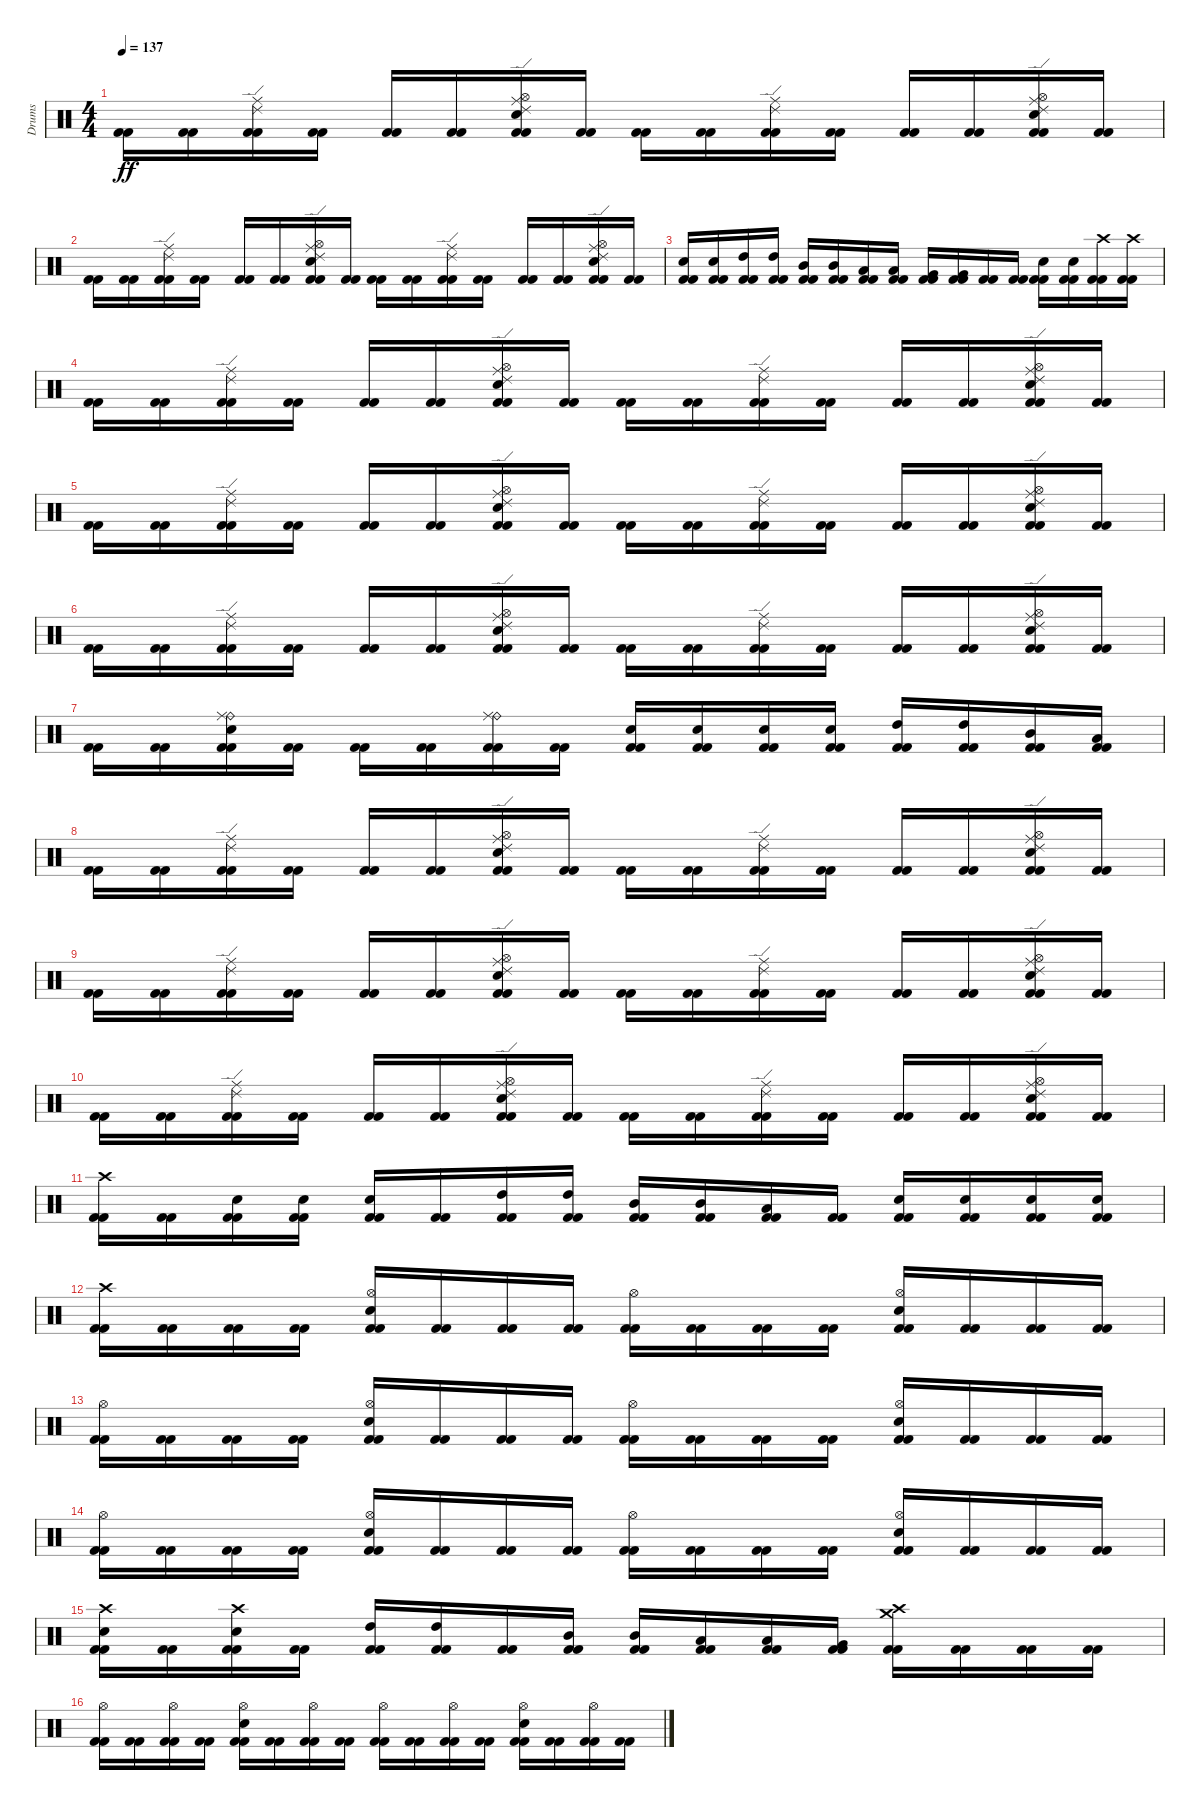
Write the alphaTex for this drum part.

\track ("Drums" "Drums") {instrument percussion}
\staff {score}
\articulation defaults
\ts (4 4)
\tempo 137
\clef neutral
\ks c
("Kick (hit) 2" "Kick (hit) 2").16{dy ff} ("Kick (hit) 2" "Kick (hit) 2").16 ("Ride (edge) 2" "Ride (middle)" "Kick (hit) 2" "Kick (hit) 2").16 ("Kick (hit) 2" "Kick (hit) 2").16 ("Kick (hit) 2" "Kick (hit) 2").16 ("Kick (hit) 2" "Kick (hit) 2").16 ("Ride (edge) 2" "Hi-Hat (open)" "Ride (middle)" "Electric Snare (hit)" "Kick (hit) 2" "Kick (hit) 2").16 ("Kick (hit) 2" "Kick (hit) 2").16 ("Kick (hit) 2" "Kick (hit) 2").16 ("Kick (hit) 2" "Kick (hit) 2").16 ("Ride (edge) 2" "Ride (middle)" "Kick (hit) 2" "Kick (hit) 2").16 ("Kick (hit) 2" "Kick (hit) 2").16 ("Kick (hit) 2" "Kick (hit) 2").16 ("Kick (hit) 2" "Kick (hit) 2").16 ("Ride (edge) 2" "Hi-Hat (open)" "Ride (middle)" "Electric Snare (hit)" "Kick (hit) 2" "Kick (hit) 2").16 ("Kick (hit) 2" "Kick (hit) 2").16 |
("Kick (hit) 2" "Kick (hit) 2").16 ("Kick (hit) 2" "Kick (hit) 2").16 ("Ride (edge) 2" "Ride (middle)" "Kick (hit) 2" "Kick (hit) 2").16 ("Kick (hit) 2" "Kick (hit) 2").16 ("Kick (hit) 2" "Kick (hit) 2").16 ("Kick (hit) 2" "Kick (hit) 2").16 ("Ride (edge) 2" "Hi-Hat (open)" "Ride (middle)" "Electric Snare (hit)" "Kick (hit) 2" "Kick (hit) 2").16 ("Kick (hit) 2" "Kick (hit) 2").16 ("Kick (hit) 2" "Kick (hit) 2").16 ("Kick (hit) 2" "Kick (hit) 2").16 ("Ride (edge) 2" "Ride (middle)" "Kick (hit) 2" "Kick (hit) 2").16 ("Kick (hit) 2" "Kick (hit) 2").16 ("Kick (hit) 2" "Kick (hit) 2").16 ("Kick (hit) 2" "Kick (hit) 2").16 ("Ride (edge) 2" "Hi-Hat (open)" "Ride (middle)" "Electric Snare (hit)" "Kick (hit) 2" "Kick (hit) 2").16 ("Kick (hit) 2" "Kick (hit) 2").16 |
("Electric Snare (hit)" "Kick (hit) 2" "Kick (hit) 2").16 ("Electric Snare (hit)" "Kick (hit) 2" "Kick (hit) 2").16 ("High Tom (hit)" "Kick (hit) 2" "Kick (hit) 2").16 ("High Tom (hit)" "Kick (hit) 2" "Kick (hit) 2").16 ("Mid Tom (hit)" "Kick (hit) 2" "Kick (hit) 2").16 ("Mid Tom (hit)" "Kick (hit) 2" "Kick (hit) 2").16 ("Low Tom (hit)" "Kick (hit) 2" "Kick (hit) 2").16 ("Low Tom (hit)" "Kick (hit) 2" "Kick (hit) 2").16 ("Very Low Tom (hit)" "Kick (hit) 2" "Kick (hit) 2").16 ("Very Low Tom (hit)" "Kick (hit) 2" "Kick (hit) 2").16 ("Kick (hit) 2" "Kick (hit) 2").16 ("Kick (hit) 2" "Kick (hit) 2").16 ("Electric Snare (hit)" "Kick (hit) 2" "Kick (hit) 2").16 ("Electric Snare (hit)" "Kick (hit) 2" "Kick (hit) 2").16 ("Crash high (hit)" "Kick (hit) 2" "Kick (hit) 2").16 ("Crash high (hit)" "Kick (hit) 2" "Kick (hit) 2").16 |
("Kick (hit) 2" "Kick (hit) 2").16 ("Kick (hit) 2" "Kick (hit) 2").16 ("Ride (edge) 2" "Ride (middle)" "Kick (hit) 2" "Kick (hit) 2").16 ("Kick (hit) 2" "Kick (hit) 2").16 ("Kick (hit) 2" "Kick (hit) 2").16 ("Kick (hit) 2" "Kick (hit) 2").16 ("Ride (edge) 2" "Hi-Hat (open)" "Ride (middle)" "Electric Snare (hit)" "Kick (hit) 2" "Kick (hit) 2").16 ("Kick (hit) 2" "Kick (hit) 2").16 ("Kick (hit) 2" "Kick (hit) 2").16 ("Kick (hit) 2" "Kick (hit) 2").16 ("Ride (edge) 2" "Ride (middle)" "Kick (hit) 2" "Kick (hit) 2").16 ("Kick (hit) 2" "Kick (hit) 2").16 ("Kick (hit) 2" "Kick (hit) 2").16 ("Kick (hit) 2" "Kick (hit) 2").16 ("Ride (edge) 2" "Hi-Hat (open)" "Ride (middle)" "Electric Snare (hit)" "Kick (hit) 2" "Kick (hit) 2").16 ("Kick (hit) 2" "Kick (hit) 2").16 |
("Kick (hit) 2" "Kick (hit) 2").16 ("Kick (hit) 2" "Kick (hit) 2").16 ("Ride (edge) 2" "Ride (middle)" "Kick (hit) 2" "Kick (hit) 2").16 ("Kick (hit) 2" "Kick (hit) 2").16 ("Kick (hit) 2" "Kick (hit) 2").16 ("Kick (hit) 2" "Kick (hit) 2").16 ("Ride (edge) 2" "Hi-Hat (open)" "Ride (middle)" "Electric Snare (hit)" "Kick (hit) 2" "Kick (hit) 2").16 ("Kick (hit) 2" "Kick (hit) 2").16 ("Kick (hit) 2" "Kick (hit) 2").16 ("Kick (hit) 2" "Kick (hit) 2").16 ("Ride (edge) 2" "Ride (middle)" "Kick (hit) 2" "Kick (hit) 2").16 ("Kick (hit) 2" "Kick (hit) 2").16 ("Kick (hit) 2" "Kick (hit) 2").16 ("Kick (hit) 2" "Kick (hit) 2").16 ("Ride (edge) 2" "Hi-Hat (open)" "Ride (middle)" "Electric Snare (hit)" "Kick (hit) 2" "Kick (hit) 2").16 ("Kick (hit) 2" "Kick (hit) 2").16 |
("Kick (hit) 2" "Kick (hit) 2").16 ("Kick (hit) 2" "Kick (hit) 2").16 ("Ride (edge) 2" "Ride (middle)" "Kick (hit) 2" "Kick (hit) 2").16 ("Kick (hit) 2" "Kick (hit) 2").16 ("Kick (hit) 2" "Kick (hit) 2").16 ("Kick (hit) 2" "Kick (hit) 2").16 ("Ride (edge) 2" "Hi-Hat (open)" "Ride (middle)" "Electric Snare (hit)" "Kick (hit) 2" "Kick (hit) 2").16 ("Kick (hit) 2" "Kick (hit) 2").16 ("Kick (hit) 2" "Kick (hit) 2").16 ("Kick (hit) 2" "Kick (hit) 2").16 ("Ride (edge) 2" "Ride (middle)" "Kick (hit) 2" "Kick (hit) 2").16 ("Kick (hit) 2" "Kick (hit) 2").16 ("Kick (hit) 2" "Kick (hit) 2").16 ("Kick (hit) 2" "Kick (hit) 2").16 ("Ride (edge) 2" "Hi-Hat (open)" "Ride (middle)" "Electric Snare (hit)" "Kick (hit) 2" "Kick (hit) 2").16 ("Kick (hit) 2" "Kick (hit) 2").16 |
("Kick (hit) 2" "Kick (hit) 2").16 ("Kick (hit) 2" "Kick (hit) 2").16 ("Ride (bell)" "Electric Snare (hit)" "Ride (middle)" "Kick (hit) 2" "Kick (hit) 2").16 ("Kick (hit) 2" "Kick (hit) 2").16 ("Kick (hit) 2" "Kick (hit) 2").16 ("Kick (hit) 2" "Kick (hit) 2").16 ("Ride (bell)" "Ride (middle)" "Kick (hit) 2" "Kick (hit) 2").16 ("Kick (hit) 2" "Kick (hit) 2").16 ("Electric Snare (hit)" "Kick (hit) 2" "Kick (hit) 2").16 ("Electric Snare (hit)" "Kick (hit) 2" "Kick (hit) 2").16 ("Electric Snare (hit)" "Kick (hit) 2" "Kick (hit) 2").16 ("Electric Snare (hit)" "Kick (hit) 2" "Kick (hit) 2").16 ("High Tom (hit)" "Kick (hit) 2" "Kick (hit) 2").16 ("High Tom (hit)" "Kick (hit) 2" "Kick (hit) 2").16 ("Mid Tom (hit)" "Kick (hit) 2" "Kick (hit) 2").16 ("Low Tom (hit)" "Kick (hit) 2" "Kick (hit) 2").16 |
("Kick (hit) 2" "Kick (hit) 2").16 ("Kick (hit) 2" "Kick (hit) 2").16 ("Ride (edge) 2" "Ride (middle)" "Kick (hit) 2" "Kick (hit) 2").16 ("Kick (hit) 2" "Kick (hit) 2").16 ("Kick (hit) 2" "Kick (hit) 2").16 ("Kick (hit) 2" "Kick (hit) 2").16 ("Ride (edge) 2" "Hi-Hat (open)" "Ride (middle)" "Electric Snare (hit)" "Kick (hit) 2" "Kick (hit) 2").16 ("Kick (hit) 2" "Kick (hit) 2").16 ("Kick (hit) 2" "Kick (hit) 2").16 ("Kick (hit) 2" "Kick (hit) 2").16 ("Ride (edge) 2" "Ride (middle)" "Kick (hit) 2" "Kick (hit) 2").16 ("Kick (hit) 2" "Kick (hit) 2").16 ("Kick (hit) 2" "Kick (hit) 2").16 ("Kick (hit) 2" "Kick (hit) 2").16 ("Ride (edge) 2" "Hi-Hat (open)" "Ride (middle)" "Electric Snare (hit)" "Kick (hit) 2" "Kick (hit) 2").16 ("Kick (hit) 2" "Kick (hit) 2").16 |
("Kick (hit) 2" "Kick (hit) 2").16 ("Kick (hit) 2" "Kick (hit) 2").16 ("Ride (edge) 2" "Ride (middle)" "Kick (hit) 2" "Kick (hit) 2").16 ("Kick (hit) 2" "Kick (hit) 2").16 ("Kick (hit) 2" "Kick (hit) 2").16 ("Kick (hit) 2" "Kick (hit) 2").16 ("Ride (edge) 2" "Hi-Hat (open)" "Ride (middle)" "Electric Snare (hit)" "Kick (hit) 2" "Kick (hit) 2").16 ("Kick (hit) 2" "Kick (hit) 2").16 ("Kick (hit) 2" "Kick (hit) 2").16 ("Kick (hit) 2" "Kick (hit) 2").16 ("Ride (edge) 2" "Ride (middle)" "Kick (hit) 2" "Kick (hit) 2").16 ("Kick (hit) 2" "Kick (hit) 2").16 ("Kick (hit) 2" "Kick (hit) 2").16 ("Kick (hit) 2" "Kick (hit) 2").16 ("Ride (edge) 2" "Hi-Hat (open)" "Ride (middle)" "Electric Snare (hit)" "Kick (hit) 2" "Kick (hit) 2").16 ("Kick (hit) 2" "Kick (hit) 2").16 |
("Kick (hit) 2" "Kick (hit) 2").16 ("Kick (hit) 2" "Kick (hit) 2").16 ("Ride (edge) 2" "Ride (middle)" "Kick (hit) 2" "Kick (hit) 2").16 ("Kick (hit) 2" "Kick (hit) 2").16 ("Kick (hit) 2" "Kick (hit) 2").16 ("Kick (hit) 2" "Kick (hit) 2").16 ("Ride (edge) 2" "Hi-Hat (open)" "Ride (middle)" "Electric Snare (hit)" "Kick (hit) 2" "Kick (hit) 2").16 ("Kick (hit) 2" "Kick (hit) 2").16 ("Kick (hit) 2" "Kick (hit) 2").16 ("Kick (hit) 2" "Kick (hit) 2").16 ("Ride (edge) 2" "Ride (middle)" "Kick (hit) 2" "Kick (hit) 2").16 ("Kick (hit) 2" "Kick (hit) 2").16 ("Kick (hit) 2" "Kick (hit) 2").16 ("Kick (hit) 2" "Kick (hit) 2").16 ("Ride (edge) 2" "Hi-Hat (open)" "Ride (middle)" "Electric Snare (hit)" "Kick (hit) 2" "Kick (hit) 2").16 ("Kick (hit) 2" "Kick (hit) 2").16 |
("Crash high (hit)" "Kick (hit) 2" "Kick (hit) 2").16 ("Kick (hit) 2" "Kick (hit) 2").16 ("Electric Snare (hit)" "Kick (hit) 2" "Kick (hit) 2").16 ("Electric Snare (hit)" "Kick (hit) 2" "Kick (hit) 2").16 ("Electric Snare (hit)" "Kick (hit) 2" "Kick (hit) 2").16 ("Kick (hit) 2" "Kick (hit) 2").16 ("High Tom (hit)" "Kick (hit) 2" "Kick (hit) 2").16 ("High Tom (hit)" "Kick (hit) 2" "Kick (hit) 2").16 ("Mid Tom (hit)" "Kick (hit) 2" "Kick (hit) 2").16 ("Mid Tom (hit)" "Kick (hit) 2" "Kick (hit) 2").16 ("Low Tom (hit)" "Kick (hit) 2" "Kick (hit) 2").16 ("Kick (hit) 2" "Kick (hit) 2").16 ("Electric Snare (hit)" "Kick (hit) 2" "Kick (hit) 2").16 ("Electric Snare (hit)" "Kick (hit) 2" "Kick (hit) 2").16 ("Electric Snare (hit)" "Kick (hit) 2" "Kick (hit) 2").16 ("Electric Snare (hit)" "Kick (hit) 2" "Kick (hit) 2").16 |
("Crash high (hit)" "Kick (hit) 2" "Kick (hit) 2").16 ("Kick (hit) 2" "Kick (hit) 2").16 ("Kick (hit) 2" "Kick (hit) 2").16 ("Kick (hit) 2" "Kick (hit) 2").16 ("Hi-Hat (open)" "Electric Snare (hit)" "Kick (hit) 2" "Kick (hit) 2").16 ("Kick (hit) 2" "Kick (hit) 2").16 ("Kick (hit) 2" "Kick (hit) 2").16 ("Kick (hit) 2" "Kick (hit) 2").16 ("Hi-Hat (open)" "Kick (hit) 2" "Kick (hit) 2").16 ("Kick (hit) 2" "Kick (hit) 2").16 ("Kick (hit) 2" "Kick (hit) 2").16 ("Kick (hit) 2" "Kick (hit) 2").16 ("Hi-Hat (open)" "Electric Snare (hit)" "Kick (hit) 2" "Kick (hit) 2").16 ("Kick (hit) 2" "Kick (hit) 2").16 ("Kick (hit) 2" "Kick (hit) 2").16 ("Kick (hit) 2" "Kick (hit) 2").16 |
("Hi-Hat (open)" "Kick (hit) 2" "Kick (hit) 2").16 ("Kick (hit) 2" "Kick (hit) 2").16 ("Kick (hit) 2" "Kick (hit) 2").16 ("Kick (hit) 2" "Kick (hit) 2").16 ("Hi-Hat (open)" "Electric Snare (hit)" "Kick (hit) 2" "Kick (hit) 2").16 ("Kick (hit) 2" "Kick (hit) 2").16 ("Kick (hit) 2" "Kick (hit) 2").16 ("Kick (hit) 2" "Kick (hit) 2").16 ("Hi-Hat (open)" "Kick (hit) 2" "Kick (hit) 2").16 ("Kick (hit) 2" "Kick (hit) 2").16 ("Kick (hit) 2" "Kick (hit) 2").16 ("Kick (hit) 2" "Kick (hit) 2").16 ("Hi-Hat (open)" "Electric Snare (hit)" "Kick (hit) 2" "Kick (hit) 2").16 ("Kick (hit) 2" "Kick (hit) 2").16 ("Kick (hit) 2" "Kick (hit) 2").16 ("Kick (hit) 2" "Kick (hit) 2").16 |
("Hi-Hat (open)" "Kick (hit) 2" "Kick (hit) 2").16 ("Kick (hit) 2" "Kick (hit) 2").16 ("Kick (hit) 2" "Kick (hit) 2").16 ("Kick (hit) 2" "Kick (hit) 2").16 ("Hi-Hat (open)" "Electric Snare (hit)" "Kick (hit) 2" "Kick (hit) 2").16 ("Kick (hit) 2" "Kick (hit) 2").16 ("Kick (hit) 2" "Kick (hit) 2").16 ("Kick (hit) 2" "Kick (hit) 2").16 ("Hi-Hat (open)" "Kick (hit) 2" "Kick (hit) 2").16 ("Kick (hit) 2" "Kick (hit) 2").16 ("Kick (hit) 2" "Kick (hit) 2").16 ("Kick (hit) 2" "Kick (hit) 2").16 ("Hi-Hat (open)" "Electric Snare (hit)" "Kick (hit) 2" "Kick (hit) 2").16 ("Kick (hit) 2" "Kick (hit) 2").16 ("Kick (hit) 2" "Kick (hit) 2").16 ("Kick (hit) 2" "Kick (hit) 2").16 |
("Crash high (hit)" "Electric Snare (hit)" "Kick (hit) 2" "Kick (hit) 2").16 ("Kick (hit) 2" "Kick (hit) 2").16 ("Crash high (hit)" "Electric Snare (hit)" "Kick (hit) 2" "Kick (hit) 2").16 ("Kick (hit) 2" "Kick (hit) 2").16 ("High Tom (hit)" "Kick (hit) 2" "Kick (hit) 2").16 ("High Tom (hit)" "Kick (hit) 2" "Kick (hit) 2").16 ("Kick (hit) 2" "Kick (hit) 2").16 ("Mid Tom (hit)" "Kick (hit) 2" "Kick (hit) 2").16 ("Mid Tom (hit)" "Kick (hit) 2" "Kick (hit) 2").16 ("Low Tom (hit)" "Kick (hit) 2" "Kick (hit) 2").16 ("Low Tom (hit)" "Kick (hit) 2" "Kick (hit) 2").16 ("Very Low Tom (hit)" "Kick (hit) 2" "Kick (hit) 2").16 ("Crash high (hit)" "Crash medium (hit)" "Kick (hit) 2" "Kick (hit) 2").16 ("Kick (hit) 2" "Kick (hit) 2").16 ("Kick (hit) 2" "Kick (hit) 2").16 ("Kick (hit) 2" "Kick (hit) 2").16 |
("Hi-Hat (open)" "Kick (hit) 2" "Kick (hit) 2").16 ("Kick (hit) 2" "Kick (hit) 2").16 ("Hi-Hat (open)" "Kick (hit) 2" "Kick (hit) 2").16 ("Kick (hit) 2" "Kick (hit) 2").16 ("Hi-Hat (open)" "Electric Snare (hit)" "Kick (hit) 2" "Kick (hit) 2").16 ("Kick (hit) 2" "Kick (hit) 2").16 ("Hi-Hat (open)" "Kick (hit) 2" "Kick (hit) 2").16 ("Kick (hit) 2" "Kick (hit) 2").16 ("Hi-Hat (open)" "Kick (hit) 2" "Kick (hit) 2").16 ("Kick (hit) 2" "Kick (hit) 2").16 ("Hi-Hat (open)" "Kick (hit) 2" "Kick (hit) 2").16 ("Kick (hit) 2" "Kick (hit) 2").16 ("Hi-Hat (open)" "Electric Snare (hit)" "Kick (hit) 2" "Kick (hit) 2").16 ("Kick (hit) 2" "Kick (hit) 2").16 ("Hi-Hat (open)" "Kick (hit) 2" "Kick (hit) 2").16 ("Kick (hit) 2" "Kick (hit) 2").16
